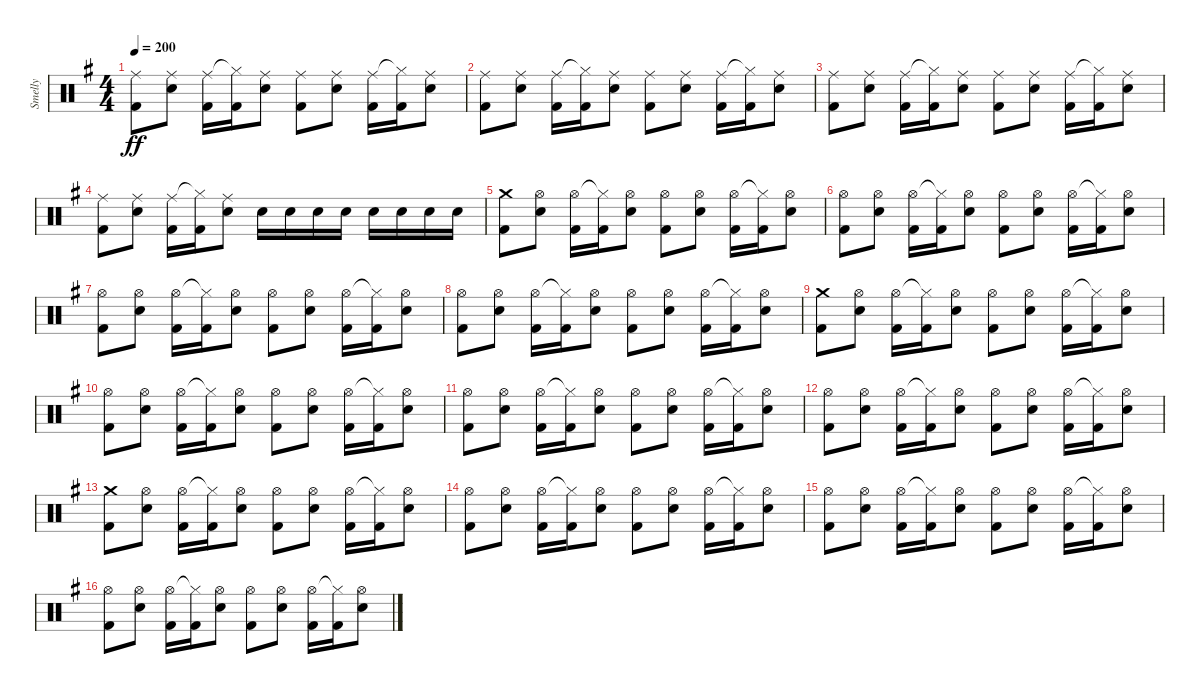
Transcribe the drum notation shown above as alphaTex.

\track ("Smelly" "Smelly") {instrument percussion}
\staff {score}
\articulation defaults
\ts (4 4)
\tempo 200
\clef neutral
\ks eminor
("Ride (middle)" "Kick (hit) 2").8{dy ff} ("Ride (middle)" "Electric Snare (hit)").8 ("Ride (middle)" "Kick (hit) 2").16 ("Hi-Hat (closed)"{t} "Kick (hit) 2").16 ("Ride (middle)" "Electric Snare (hit)").8 ("Ride (middle)" "Kick (hit) 2").8 ("Ride (middle)" "Electric Snare (hit)").8 ("Ride (middle)" "Kick (hit) 2").16 ("Hi-Hat (closed)"{t} "Kick (hit) 2").16 ("Ride (middle)" "Electric Snare (hit)").8 |
("Ride (middle)" "Kick (hit) 2").8 ("Ride (middle)" "Electric Snare (hit)").8 ("Ride (middle)" "Kick (hit) 2").16 ("Hi-Hat (closed)"{t} "Kick (hit) 2").16 ("Ride (middle)" "Electric Snare (hit)").8 ("Ride (middle)" "Kick (hit) 2").8 ("Ride (middle)" "Electric Snare (hit)").8 ("Ride (middle)" "Kick (hit) 2").16 ("Hi-Hat (closed)"{t} "Kick (hit) 2").16 ("Ride (middle)" "Electric Snare (hit)").8 |
("Ride (middle)" "Kick (hit) 2").8 ("Ride (middle)" "Electric Snare (hit)").8 ("Ride (middle)" "Kick (hit) 2").16 ("Hi-Hat (closed)"{t} "Kick (hit) 2").16 ("Ride (middle)" "Electric Snare (hit)").8 ("Ride (middle)" "Kick (hit) 2").8 ("Ride (middle)" "Electric Snare (hit)").8 ("Ride (middle)" "Kick (hit) 2").16 ("Hi-Hat (closed)"{t} "Kick (hit) 2").16 ("Ride (middle)" "Electric Snare (hit)").8 |
("Ride (middle)" "Kick (hit) 2").8 ("Ride (middle)" "Electric Snare (hit)").8 ("Ride (middle)" "Kick (hit) 2").16 ("Hi-Hat (closed)"{t} "Kick (hit) 2").16 ("Ride (middle)" "Electric Snare (hit)").8 "Electric Snare (hit)".16 "Electric Snare (hit)".16 "Electric Snare (hit)".16 "Electric Snare (hit)".16 "Electric Snare (hit)".16 "Electric Snare (hit)".16 "Electric Snare (hit)".16 "Electric Snare (hit)".16 |
("Crash medium (hit)" "Kick (hit) 2").8 ("Hi-Hat (open)" "Electric Snare (hit)").8 ("Hi-Hat (open)" "Kick (hit) 2").16 ("Hi-Hat (closed)"{t} "Kick (hit) 2").16 ("Hi-Hat (open)" "Electric Snare (hit)").8 ("Hi-Hat (open)" "Kick (hit) 2").8 ("Hi-Hat (open)" "Electric Snare (hit)").8 ("Hi-Hat (open)" "Kick (hit) 2").16 ("Hi-Hat (closed)"{t} "Kick (hit) 2").16 ("Hi-Hat (open)" "Electric Snare (hit)").8 |
("Hi-Hat (open)" "Kick (hit) 2").8 ("Hi-Hat (open)" "Electric Snare (hit)").8 ("Hi-Hat (open)" "Kick (hit) 2").16 ("Hi-Hat (closed)"{t} "Kick (hit) 2").16 ("Hi-Hat (open)" "Electric Snare (hit)").8 ("Hi-Hat (open)" "Kick (hit) 2").8 ("Hi-Hat (open)" "Electric Snare (hit)").8 ("Hi-Hat (open)" "Kick (hit) 2").16 ("Hi-Hat (closed)"{t} "Kick (hit) 2").16 ("Hi-Hat (open)" "Electric Snare (hit)").8 |
("Hi-Hat (open)" "Kick (hit) 2").8 ("Hi-Hat (open)" "Electric Snare (hit)").8 ("Hi-Hat (open)" "Kick (hit) 2").16 ("Hi-Hat (closed)"{t} "Kick (hit) 2").16 ("Hi-Hat (open)" "Electric Snare (hit)").8 ("Hi-Hat (open)" "Kick (hit) 2").8 ("Hi-Hat (open)" "Electric Snare (hit)").8 ("Hi-Hat (open)" "Kick (hit) 2").16 ("Hi-Hat (closed)"{t} "Kick (hit) 2").16 ("Hi-Hat (open)" "Electric Snare (hit)").8 |
("Hi-Hat (open)" "Kick (hit) 2").8 ("Hi-Hat (open)" "Electric Snare (hit)").8 ("Hi-Hat (open)" "Kick (hit) 2").16 ("Hi-Hat (closed)"{t} "Kick (hit) 2").16 ("Hi-Hat (open)" "Electric Snare (hit)").8 ("Hi-Hat (open)" "Kick (hit) 2").8 ("Hi-Hat (open)" "Electric Snare (hit)").8 ("Hi-Hat (open)" "Kick (hit) 2").16 ("Hi-Hat (closed)"{t} "Kick (hit) 2").16 ("Hi-Hat (open)" "Electric Snare (hit)").8 |
("Crash medium (hit)" "Kick (hit) 2").8 ("Hi-Hat (open)" "Electric Snare (hit)").8 ("Hi-Hat (open)" "Kick (hit) 2").16 ("Hi-Hat (closed)"{t} "Kick (hit) 2").16 ("Hi-Hat (open)" "Electric Snare (hit)").8 ("Hi-Hat (open)" "Kick (hit) 2").8 ("Hi-Hat (open)" "Electric Snare (hit)").8 ("Hi-Hat (open)" "Kick (hit) 2").16 ("Hi-Hat (closed)"{t} "Kick (hit) 2").16 ("Hi-Hat (open)" "Electric Snare (hit)").8 |
("Hi-Hat (open)" "Kick (hit) 2").8 ("Hi-Hat (open)" "Electric Snare (hit)").8 ("Hi-Hat (open)" "Kick (hit) 2").16 ("Hi-Hat (closed)"{t} "Kick (hit) 2").16 ("Hi-Hat (open)" "Electric Snare (hit)").8 ("Hi-Hat (open)" "Kick (hit) 2").8 ("Hi-Hat (open)" "Electric Snare (hit)").8 ("Hi-Hat (open)" "Kick (hit) 2").16 ("Hi-Hat (closed)"{t} "Kick (hit) 2").16 ("Hi-Hat (open)" "Electric Snare (hit)").8 |
("Hi-Hat (open)" "Kick (hit) 2").8 ("Hi-Hat (open)" "Electric Snare (hit)").8 ("Hi-Hat (open)" "Kick (hit) 2").16 ("Hi-Hat (closed)"{t} "Kick (hit) 2").16 ("Hi-Hat (open)" "Electric Snare (hit)").8 ("Hi-Hat (open)" "Kick (hit) 2").8 ("Hi-Hat (open)" "Electric Snare (hit)").8 ("Hi-Hat (open)" "Kick (hit) 2").16 ("Hi-Hat (closed)"{t} "Kick (hit) 2").16 ("Hi-Hat (open)" "Electric Snare (hit)").8 |
("Hi-Hat (open)" "Kick (hit) 2").8 ("Hi-Hat (open)" "Electric Snare (hit)").8 ("Hi-Hat (open)" "Kick (hit) 2").16 ("Hi-Hat (closed)"{t} "Kick (hit) 2").16 ("Hi-Hat (open)" "Electric Snare (hit)").8 ("Hi-Hat (open)" "Kick (hit) 2").8 ("Hi-Hat (open)" "Electric Snare (hit)").8 ("Hi-Hat (open)" "Kick (hit) 2").16 ("Hi-Hat (closed)"{t} "Kick (hit) 2").16 ("Hi-Hat (open)" "Electric Snare (hit)").8 |
("Crash medium (hit)" "Kick (hit) 2").8 ("Hi-Hat (open)" "Electric Snare (hit)").8 ("Hi-Hat (open)" "Kick (hit) 2").16 ("Hi-Hat (closed)"{t} "Kick (hit) 2").16 ("Hi-Hat (open)" "Electric Snare (hit)").8 ("Hi-Hat (open)" "Kick (hit) 2").8 ("Hi-Hat (open)" "Electric Snare (hit)").8 ("Hi-Hat (open)" "Kick (hit) 2").16 ("Hi-Hat (closed)"{t} "Kick (hit) 2").16 ("Hi-Hat (open)" "Electric Snare (hit)").8 |
("Hi-Hat (open)" "Kick (hit) 2").8 ("Hi-Hat (open)" "Electric Snare (hit)").8 ("Hi-Hat (open)" "Kick (hit) 2").16 ("Hi-Hat (closed)"{t} "Kick (hit) 2").16 ("Hi-Hat (open)" "Electric Snare (hit)").8 ("Hi-Hat (open)" "Kick (hit) 2").8 ("Hi-Hat (open)" "Electric Snare (hit)").8 ("Hi-Hat (open)" "Kick (hit) 2").16 ("Hi-Hat (closed)"{t} "Kick (hit) 2").16 ("Hi-Hat (open)" "Electric Snare (hit)").8 |
("Hi-Hat (open)" "Kick (hit) 2").8 ("Hi-Hat (open)" "Electric Snare (hit)").8 ("Hi-Hat (open)" "Kick (hit) 2").16 ("Hi-Hat (closed)"{t} "Kick (hit) 2").16 ("Hi-Hat (open)" "Electric Snare (hit)").8 ("Hi-Hat (open)" "Kick (hit) 2").8 ("Hi-Hat (open)" "Electric Snare (hit)").8 ("Hi-Hat (open)" "Kick (hit) 2").16 ("Hi-Hat (closed)"{t} "Kick (hit) 2").16 ("Hi-Hat (open)" "Electric Snare (hit)").8 |
("Hi-Hat (open)" "Kick (hit) 2").8 ("Hi-Hat (open)" "Electric Snare (hit)").8 ("Hi-Hat (open)" "Kick (hit) 2").16 ("Hi-Hat (closed)"{t} "Kick (hit) 2").16 ("Hi-Hat (open)" "Electric Snare (hit)").8 ("Hi-Hat (open)" "Kick (hit) 2").8 ("Hi-Hat (open)" "Electric Snare (hit)").8 ("Hi-Hat (open)" "Kick (hit) 2").16 ("Hi-Hat (closed)"{t} "Kick (hit) 2").16 ("Hi-Hat (open)" "Electric Snare (hit)").8
